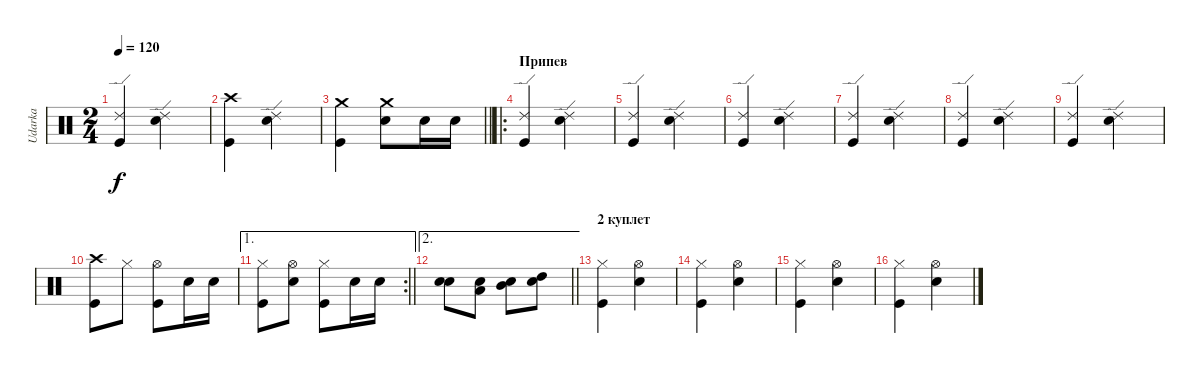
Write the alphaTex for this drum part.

\track ("Udarka" "Udarka") {solo instrument percussion}
\staff {score}
\articulation defaults
\ts (2 4)
\tempo 120
\clef neutral
\ks c
("Kick (hit)" "Ride (edge) 2").4{dy f} ("Snare (hit) 2" "Ride (edge) 2").4 |
("Kick (hit)" "Crash high (hit)").4 ("Snare (hit) 2" "Ride (edge) 2").4 |
\barLineRight lightlight
("Kick (hit)" "Crash medium (hit)").4 ("Snare (hit) 2" "Crash medium (hit)").8 "Snare (hit) 2".16 "Snare (hit) 2".16 |
\ro
\section ("" "Припев")
("Kick (hit)" "Ride (edge) 2").4 ("Snare (hit) 2" "Ride (edge) 2").4 |
("Kick (hit)" "Ride (edge) 2").4 ("Snare (hit) 2" "Ride (edge) 2").4 |
("Kick (hit)" "Ride (edge) 2").4 ("Snare (hit) 2" "Ride (edge) 2").4 |
("Kick (hit)" "Ride (edge) 2").4 ("Snare (hit) 2" "Ride (edge) 2").4 |
("Kick (hit)" "Ride (edge) 2").4 ("Snare (hit) 2" "Ride (edge) 2").4 |
("Kick (hit)" "Ride (edge) 2").4 ("Snare (hit) 2" "Ride (edge) 2").4 |
("Kick (hit)" "Crash high (hit)").8 "Hi-Hat (closed)".8 ("Kick (hit)" "Hi-Hat (open)").8 "Snare (hit) 2".16 "Snare (hit) 2".16 |
\ae 1
\rc 2
\barLineRight lightlight
("Kick (hit)" "Hi-Hat (closed)").8 ("Snare (hit) 2" "Hi-Hat (open)").8 ("Kick (hit)" "Hi-Hat (closed)").8 "Snare (hit) 2".16 "Snare (hit) 2".16 |
\ae 2
\barLineRight lightlight
("Snare (hit) 2" "Snare (hit) 2").8 ("Snare (hit) 2" "Low Tom (hit)").8 ("Snare (hit) 2" "Mid Tom (hit)").8 ("Snare (hit) 2" "High Tom (hit)").8 |
\section ("" "2 куплет")
("Kick (hit)" "Hi-Hat (closed)").4 ("Snare (hit) 2" "Hi-Hat (open)").4 |
("Kick (hit)" "Hi-Hat (closed)").4 ("Snare (hit) 2" "Hi-Hat (open)").4 |
("Kick (hit)" "Hi-Hat (closed)").4 ("Snare (hit) 2" "Hi-Hat (open)").4 |
("Kick (hit)" "Hi-Hat (closed)").4 ("Snare (hit) 2" "Hi-Hat (open)").4
